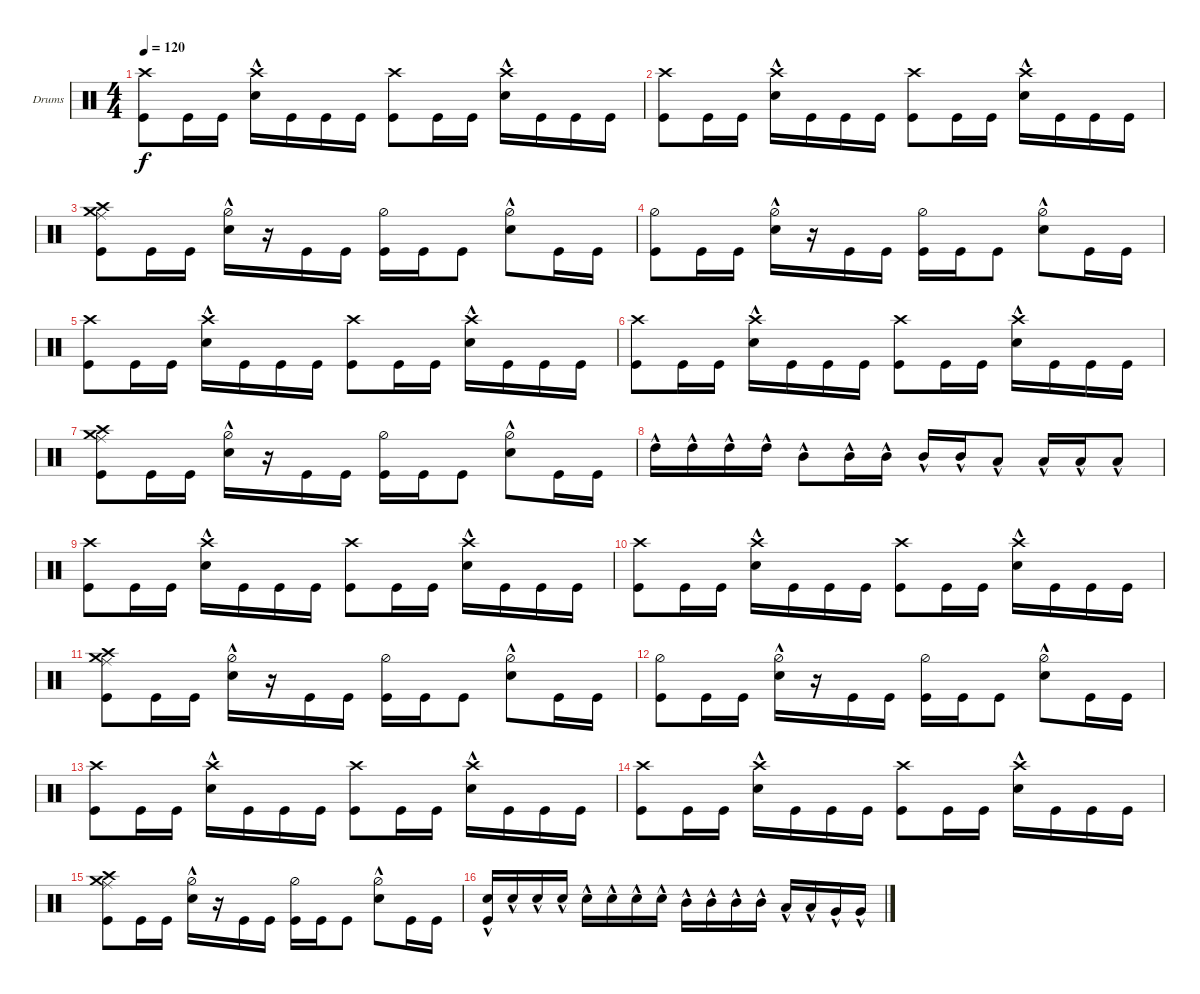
\bracketExtendMode groupsimilarinstruments
\firstSystemTrackNameOrientation horizontal
\otherSystemsTrackNameOrientation horizontal
\track ("Drumkit" "Drums") {instrument percussion}
\staff {score}
\articulation defaults
\ts (4 4)
\tempo 120
\clef neutral
\scale
0.333333
\ks c
("Kick (hit)" "Crash high (hit)").8{dy f} "Kick (hit)".16 "Kick (hit)".16 ("Snare (hit) 2"{hac} "Crash high (hit)").16 "Kick (hit)".16 "Kick (hit)".16 "Kick (hit)".16 ("Kick (hit)" "Crash high (hit)").8 "Kick (hit)".16 "Kick (hit)".16 ("Snare (hit) 2"{hac} "Crash high (hit)").16 "Kick (hit)".16 "Kick (hit)".16 "Kick (hit)".16 |
\scale
0.333333 ("Kick (hit)" "Crash high (hit)").8 "Kick (hit)".16 "Kick (hit)".16 ("Snare (hit) 2"{hac} "Crash high (hit)").16 "Kick (hit)".16 "Kick (hit)".16 "Kick (hit)".16 ("Kick (hit)" "Crash high (hit)").8 "Kick (hit)".16 "Kick (hit)".16 ("Snare (hit) 2"{hac} "Crash high (hit)").16 "Kick (hit)".16 "Kick (hit)".16 "Kick (hit)".16 |
\scale
0.333333 ("Kick (hit)" "Ride (middle)" "Crash medium (hit)" "Crash high (hit)").8 "Kick (hit)".16 "Kick (hit)".16 ("Snare (hit) 2"{hac} "Hi-Hat (half)").16 r.16 "Kick (hit)".16 "Kick (hit)".16 ("Kick (hit)" "Hi-Hat (half)").16 "Kick (hit)".16 "Kick (hit)".8 ("Snare (hit) 2"{hac} "Hi-Hat (half)").8 "Kick (hit)".16 "Kick (hit)".16 |
\scale
0.333333 ("Kick (hit)" "Hi-Hat (half)").8 "Kick (hit)".16 "Kick (hit)".16 ("Snare (hit) 2"{hac} "Hi-Hat (half)").16 r.16 "Kick (hit)".16 "Kick (hit)".16 ("Kick (hit)" "Hi-Hat (half)").16 "Kick (hit)".16 "Kick (hit)".8 ("Snare (hit) 2"{hac} "Hi-Hat (half)").8 "Kick (hit)".16 "Kick (hit)".16 |
\scale
0.333333 ("Kick (hit)" "Crash high (hit)").8 "Kick (hit)".16 "Kick (hit)".16 ("Snare (hit) 2"{hac} "Crash high (hit)").16 "Kick (hit)".16 "Kick (hit)".16 "Kick (hit)".16 ("Kick (hit)" "Crash high (hit)").8 "Kick (hit)".16 "Kick (hit)".16 ("Snare (hit) 2"{hac} "Crash high (hit)").16 "Kick (hit)".16 "Kick (hit)".16 "Kick (hit)".16 |
\scale
0.333333 ("Kick (hit)" "Crash high (hit)").8 "Kick (hit)".16 "Kick (hit)".16 ("Snare (hit) 2"{hac} "Crash high (hit)").16 "Kick (hit)".16 "Kick (hit)".16 "Kick (hit)".16 ("Kick (hit)" "Crash high (hit)").8 "Kick (hit)".16 "Kick (hit)".16 ("Snare (hit) 2"{hac} "Crash high (hit)").16 "Kick (hit)".16 "Kick (hit)".16 "Kick (hit)".16 |
\scale
0.333333 ("Kick (hit)" "Ride (middle)" "Crash medium (hit)" "Crash high (hit)").8 "Kick (hit)".16 "Kick (hit)".16 ("Snare (hit) 2"{hac} "Hi-Hat (half)").16 r.16 "Kick (hit)".16 "Kick (hit)".16 ("Kick (hit)" "Hi-Hat (half)").16 "Kick (hit)".16 "Kick (hit)".8 ("Snare (hit) 2"{hac} "Hi-Hat (half)").8 "Kick (hit)".16 "Kick (hit)".16 |
\scale
0.333333 "High Tom (hit)"{hac}.16 "High Tom (hit)"{hac}.16 "High Tom (hit)"{hac}.16 "High Tom (hit)"{hac}.16 "Mid Tom (hit)"{hac}.8 "Mid Tom (hit)"{hac}.16 "Mid Tom (hit)"{hac}.16 "Mid Tom (hit)"{hac}.16 "Mid Tom (hit)"{hac}.16 "Low Tom (hit)"{hac}.8 "Low Tom (hit)"{hac}.16 "Low Tom (hit)"{hac}.16 "Low Tom (hit)"{hac}.8 |
\scale
0.333333 ("Kick (hit)" "Crash high (hit)").8 "Kick (hit)".16 "Kick (hit)".16 ("Snare (hit) 2"{hac} "Crash high (hit)").16 "Kick (hit)".16 "Kick (hit)".16 "Kick (hit)".16 ("Kick (hit)" "Crash high (hit)").8 "Kick (hit)".16 "Kick (hit)".16 ("Snare (hit) 2"{hac} "Crash high (hit)").16 "Kick (hit)".16 "Kick (hit)".16 "Kick (hit)".16 |
\scale
0.333333 ("Kick (hit)" "Crash high (hit)").8 "Kick (hit)".16 "Kick (hit)".16 ("Snare (hit) 2"{hac} "Crash high (hit)").16 "Kick (hit)".16 "Kick (hit)".16 "Kick (hit)".16 ("Kick (hit)" "Crash high (hit)").8 "Kick (hit)".16 "Kick (hit)".16 ("Snare (hit) 2"{hac} "Crash high (hit)").16 "Kick (hit)".16 "Kick (hit)".16 "Kick (hit)".16 |
\scale
0.333333 ("Kick (hit)" "Ride (middle)" "Crash medium (hit)" "Crash high (hit)").8 "Kick (hit)".16 "Kick (hit)".16 ("Snare (hit) 2"{hac} "Hi-Hat (half)").16 r.16 "Kick (hit)".16 "Kick (hit)".16 ("Kick (hit)" "Hi-Hat (half)").16 "Kick (hit)".16 "Kick (hit)".8 ("Snare (hit) 2"{hac} "Hi-Hat (half)").8 "Kick (hit)".16 "Kick (hit)".16 |
\scale
0.333333 ("Kick (hit)" "Hi-Hat (half)").8 "Kick (hit)".16 "Kick (hit)".16 ("Snare (hit) 2"{hac} "Hi-Hat (half)").16 r.16 "Kick (hit)".16 "Kick (hit)".16 ("Kick (hit)" "Hi-Hat (half)").16 "Kick (hit)".16 "Kick (hit)".8 ("Snare (hit) 2"{hac} "Hi-Hat (half)").8 "Kick (hit)".16 "Kick (hit)".16 |
\scale
0.333333 ("Kick (hit)" "Crash high (hit)").8 "Kick (hit)".16 "Kick (hit)".16 ("Snare (hit) 2"{hac} "Crash high (hit)").16 "Kick (hit)".16 "Kick (hit)".16 "Kick (hit)".16 ("Kick (hit)" "Crash high (hit)").8 "Kick (hit)".16 "Kick (hit)".16 ("Snare (hit) 2"{hac} "Crash high (hit)").16 "Kick (hit)".16 "Kick (hit)".16 "Kick (hit)".16 |
\scale
0.333333 ("Kick (hit)" "Crash high (hit)").8 "Kick (hit)".16 "Kick (hit)".16 ("Snare (hit) 2"{hac} "Crash high (hit)").16 "Kick (hit)".16 "Kick (hit)".16 "Kick (hit)".16 ("Kick (hit)" "Crash high (hit)").8 "Kick (hit)".16 "Kick (hit)".16 ("Snare (hit) 2"{hac} "Crash high (hit)").16 "Kick (hit)".16 "Kick (hit)".16 "Kick (hit)".16 |
\scale
0.333333 ("Kick (hit)" "Ride (middle)" "Crash medium (hit)" "Crash high (hit)").8 "Kick (hit)".16 "Kick (hit)".16 ("Snare (hit) 2"{hac} "Hi-Hat (half)").16 r.16 "Kick (hit)".16 "Kick (hit)".16 ("Kick (hit)" "Hi-Hat (half)").16 "Kick (hit)".16 "Kick (hit)".8 ("Snare (hit) 2"{hac} "Hi-Hat (half)").8 "Kick (hit)".16 "Kick (hit)".16 |
\scale
0.333333 ("Snare (hit) 2"{hac} "Kick (hit)").16 "Snare (hit) 2"{hac}.16 "Snare (hit) 2"{hac}.16 "Snare (hit) 2"{hac}.16 "Snare (hit) 2"{hac}.16 "Snare (hit) 2"{hac}.16 "Snare (hit) 2"{hac}.16 "Snare (hit) 2"{hac}.16 "Mid Tom (hit)"{hac}.16 "Mid Tom (hit)"{hac}.16 "Mid Tom (hit)"{hac}.16 "Mid Tom (hit)"{hac}.16 "Low Tom (hit)"{hac}.16 "Low Tom (hit)"{hac}.16 "Very Low Tom (hit)"{hac}.16 "Very Low Tom (hit)"{hac}.16
